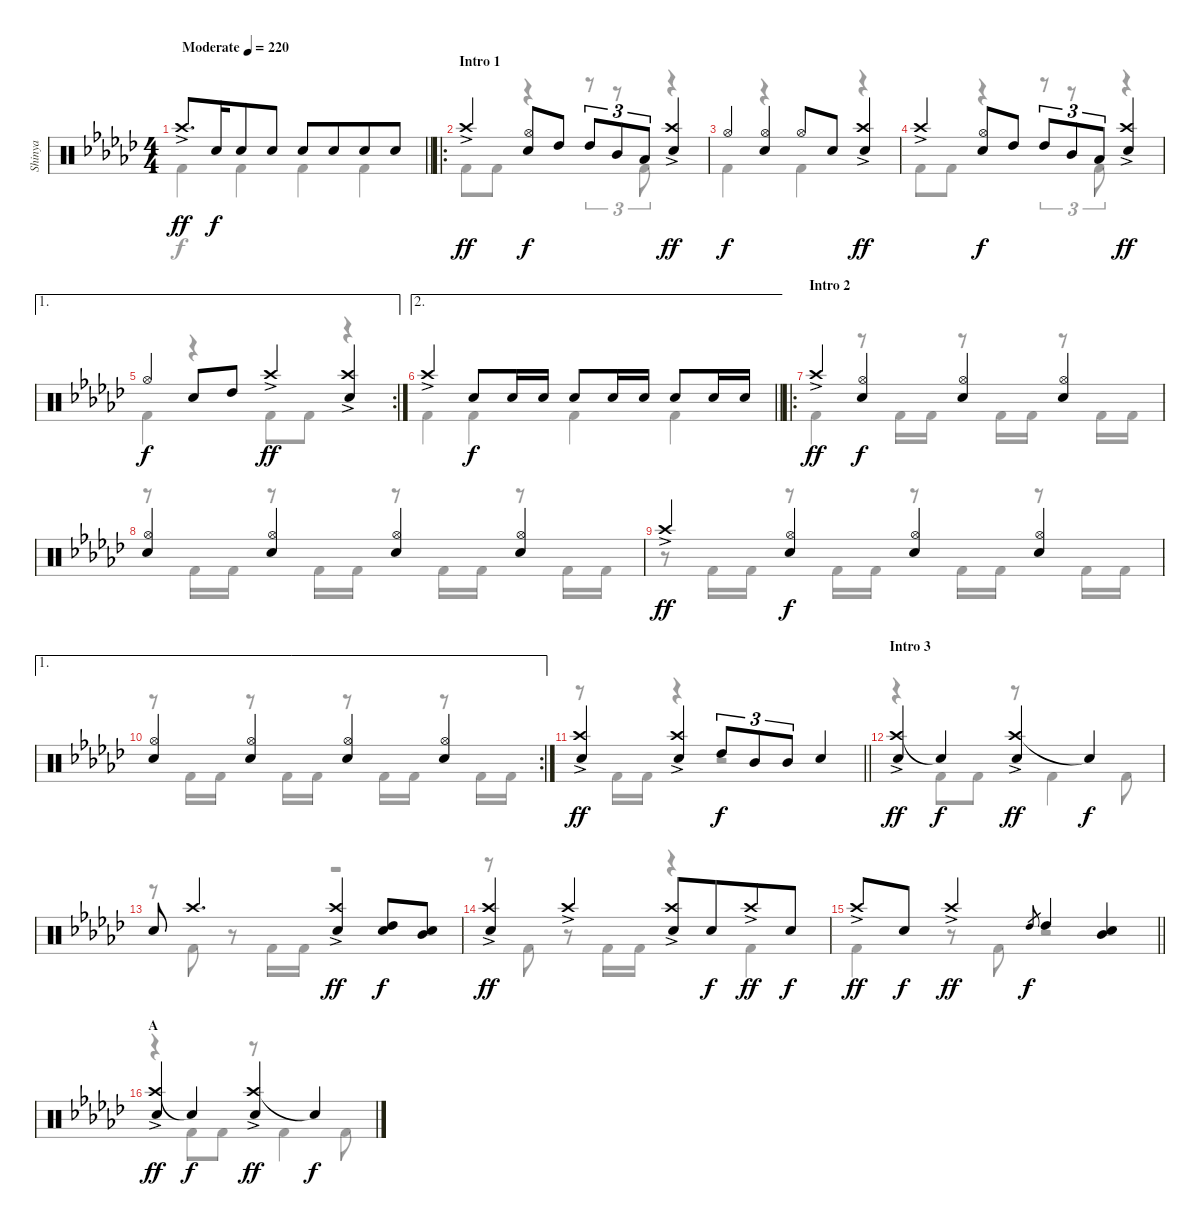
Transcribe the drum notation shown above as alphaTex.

\track ("Shinya" "Shinya") {instrument percussion}
\staff {score}
\articulation defaults
\voice
\ts (4 4)
\tempo (220 "Moderate")
\clef neutral
\barLineRight lightlight
\ks ebminor "Crash high (hit)"{ac}.8{d dy ff} "Snare (hit) 2".16{dy f beam merge} "Snare (hit) 2".8 "Snare (hit) 2".8 "Snare (hit) 2".8 "Snare (hit) 2".8{beam merge} "Snare (hit) 2".8 "Snare (hit) 2".8
|
\ro
\section ("" "Intro 1")
"Crash high (hit)"{ac}.4{dy ff} ("Hi-Hat (open)" "Snare (hit) 2").8{dy f} "High Tom (hit)".8 "High Tom (hit)".8{tu (3 2)} "Mid Tom (hit)".8{tu (3 2)} "Low Floor Tom (hit)".8{tu (3 2)} ("Crash high (hit)"{ac} "Snare (hit) 2").4{dy ff} |
"Hi-Hat (open)".4{dy f} ("Hi-Hat (open)" "Snare (hit) 2").4 "Hi-Hat (open)".8 "Snare (hit) 2".8 ("Crash high (hit)"{ac} "Snare (hit) 2").4{dy ff} |
"Crash high (hit)"{ac}.4 ("Hi-Hat (open)" "Snare (hit) 2").8{dy f} "High Tom (hit)".8 "High Tom (hit)".8{tu (3 2)} "Mid Tom (hit)".8{tu (3 2)} "Low Floor Tom (hit)".8{tu (3 2)} ("Crash high (hit)"{ac} "Snare (hit) 2").4{dy ff} |
\ae 1
\rc 2 "Hi-Hat (open)".4{dy f} "Snare (hit) 2".8 "High Tom (hit)".8 "Crash high (hit)"{ac}.4{dy ff}
("Crash high (hit)"{ac} "Snare (hit) 2").4 |
\ae 2
\barLineRight lightlight "Crash high (hit)"{ac}.4 "Snare (hit) 2".8{dy f} "Snare (hit) 2".16 "Snare (hit) 2".16 "Snare (hit) 2".8 "Snare (hit) 2".16 "Snare (hit) 2".16 "Snare (hit) 2".8 "Snare (hit) 2".16 "Snare (hit) 2".16
|
\ro
\section ("" "Intro 2")
"Crash high (hit)"{ac}.4{dy ff} ("Hi-Hat (open)" "Snare (hit) 2").4{dy f} ("Hi-Hat (open)" "Snare (hit) 2").4 ("Hi-Hat (open)" "Snare (hit) 2").4 |
("Hi-Hat (open)" "Snare (hit) 2").4 ("Hi-Hat (open)" "Snare (hit) 2").4 ("Hi-Hat (open)" "Snare (hit) 2").4 ("Hi-Hat (open)" "Snare (hit) 2").4 |
"Crash high (hit)"{ac}.4{dy ff} ("Hi-Hat (open)" "Snare (hit) 2").4{dy f} ("Hi-Hat (open)" "Snare (hit) 2").4 ("Hi-Hat (open)" "Snare (hit) 2").4 |
\ae 1
\rc 2
("Hi-Hat (open)" "Snare (hit) 2").4 ("Hi-Hat (open)" "Snare (hit) 2").4 ("Hi-Hat (open)" "Snare (hit) 2").4 ("Hi-Hat (open)" "Snare (hit) 2").4 |
\barLineRight lightlight
("Crash high (hit)"{ac} "Snare (hit) 2").4{dy ff} ("Crash high (hit)"{ac} "Snare (hit) 2").4 "High Tom (hit)".8{tu (3 2) dy f} "Mid Tom (hit)".8{tu (3 2)} "Mid Tom (hit)".8{tu (3 2)} "Snare (hit) 2".4 |
\section ("" "Intro 3")
("Crash high (hit)"{ac} "Snare (hit) 2").4{dy ff} "Snare (hit)"{t}.4{dy f} ("Crash high (hit)"{ac} "Snare (hit) 2").4{dy ff} "Snare (hit)"{t}.4{dy f} |
"Snare (hit) 2".8 "Crash high (hit)".4{d} ("Crash high (hit)"{ac} "Snare (hit) 2").4{dy ff} ("High Tom (hit)" "Snare (hit) 2").8{dy f} ("Mid Tom (hit)" "Snare (hit) 2").8 |
("Crash high (hit)"{ac} "Snare (hit) 2").4{dy ff} "Crash high (hit)"{ac}.4 ("Crash high (hit)"{ac} "Snare (hit) 2").8 "Snare (hit) 2".8{dy f beam merge} "Crash high (hit)"{ac}.8{dy ff} "Snare (hit) 2".8{dy f} |
\barLineRight lightlight "Crash high (hit)"{ac}.8{dy ff} "Snare (hit) 2".8{dy f} "Crash high (hit)"{ac}.4{dy ff} "High Tom (hit)".8{gr dy f} "High Tom (hit)".4
("Mid Tom (hit)" "Snare (hit) 2").4 |
\section ("" "A")
("Crash high (hit)"{ac} "Snare (hit) 2").4{dy ff} "Snare (hit)"{t}.4{dy f} ("Crash high (hit)"{ac} "Snare (hit) 2").4{dy ff} "Snare (hit)"{t}.4{dy f}
\voice
\clef neutral
\ottava regular
\simile none
\barLineRight lightlight
\ks ebminor "Kick (hit) 2".4{dy f} "Kick (hit) 2".4 "Kick (hit) 2".4 "Kick (hit) 2".4
|
"Kick (hit) 2".8 "Kick (hit) 2".8 r.4 r.8{tu (3 2)} r.8{tu (3 2)} "Kick (hit) 2".8{tu (3 2)} r.4 |
"Kick (hit) 2".4 r.4 "Kick (hit) 2".4 r.4 |
"Kick (hit) 2".8 "Kick (hit) 2".8 r.4 r.8{tu (3 2)} r.8{tu (3 2)} "Kick (hit) 2".8{tu (3 2)} r.4 |
"Kick (hit) 2".4 r.4 "Kick (hit) 2".8 "Kick (hit) 2".8 r.4 |
\barLineRight lightlight "Kick (hit) 2".4 "Kick (hit) 2".4 "Kick (hit) 2".4 "Kick (hit) 2".4
|
"Kick (hit) 2".4 r.8 "Kick (hit) 2".16 "Kick (hit) 2".16 r.8 "Kick (hit) 2".16 "Kick (hit) 2".16 r.8 "Kick (hit) 2".16 "Kick (hit) 2".16 |
r.8 "Kick (hit) 2".16 "Kick (hit) 2".16 r.8 "Kick (hit) 2".16 "Kick (hit) 2".16 r.8 "Kick (hit) 2".16 "Kick (hit) 2".16 r.8 "Kick (hit) 2".16 "Kick (hit) 2".16 |
r.8 "Kick (hit) 2".16 "Kick (hit) 2".16 r.8 "Kick (hit) 2".16 "Kick (hit) 2".16 r.8 "Kick (hit) 2".16 "Kick (hit) 2".16 r.8 "Kick (hit) 2".16 "Kick (hit) 2".16 |
r.8 "Kick (hit) 2".16 "Kick (hit) 2".16 r.8 "Kick (hit) 2".16 "Kick (hit) 2".16 r.8 "Kick (hit) 2".16 "Kick (hit) 2".16 r.8 "Kick (hit) 2".16 "Kick (hit) 2".16 |
\barLineRight lightlight
r.8 "Kick (hit) 2".16 "Kick (hit) 2".16 r.4 r.2 |
r.4 "Kick (hit) 2".8 "Kick (hit) 2".8 r.8 "Kick (hit) 2".4 "Kick (hit) 2".8 |
r.8 "Kick (hit) 2".8 r.8 "Kick (hit) 2".16 "Kick (hit) 2".16 r.2 |
r.8 "Kick (hit) 2".8 r.8 "Kick (hit) 2".16 "Kick (hit) 2".16 r.4 "Kick (hit) 2".4 |
\barLineRight lightlight "Kick (hit) 2".4
r.8 "Kick (hit) 2".8 r.2 |
r.4 "Kick (hit) 2".8 "Kick (hit) 2".8 r.8 "Kick (hit) 2".4 "Kick (hit) 2".8
